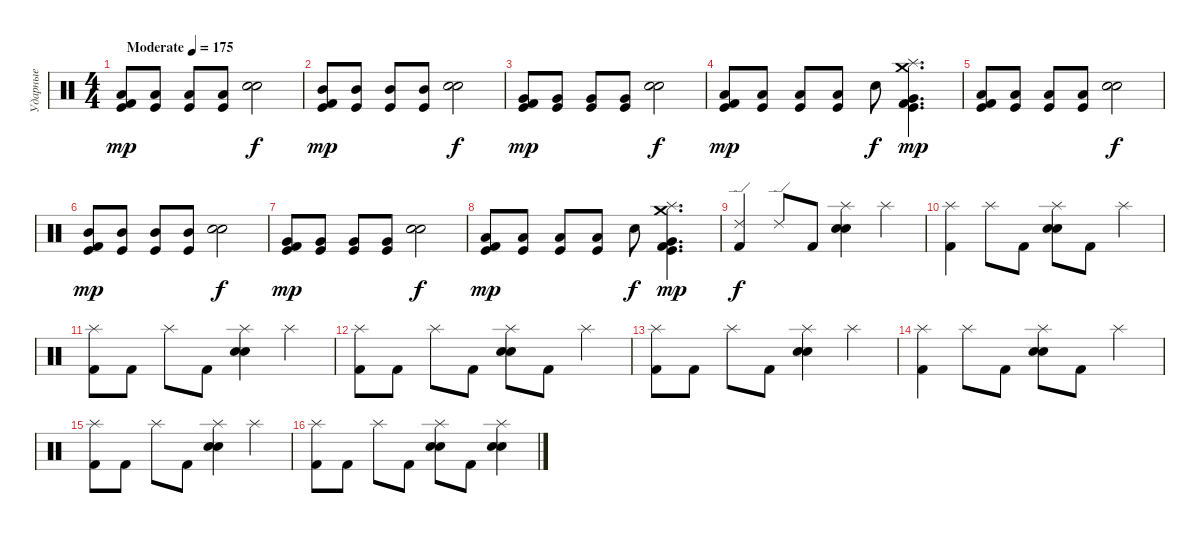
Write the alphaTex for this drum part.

\track ("Ударные" "Ударные") {instrument percussion}
\staff {score}
\articulation defaults
\ts (4 4)
\tempo (175 "Moderate")
\clef neutral
\ks c
("Kick (hit)" "Low Tom (hit)" "Kick (hit) 2").8{dy mp} ("Kick (hit)" "Low Tom (hit)").8 ("Kick (hit)" "Low Tom (hit)").8 ("Kick (hit)" "Low Tom (hit)").8 ("Electric Snare (hit)" "Snare (hit) 2").2{dy f} |
("Kick (hit)" "Mid Tom (hit)" "Kick (hit) 2").8{dy mp} ("Kick (hit)" "Mid Tom (hit)").8 ("Kick (hit)" "Mid Tom (hit)").8 ("Kick (hit)" "Mid Tom (hit)").8 ("Electric Snare (hit)" "Snare (hit) 2").2{dy f} |
("Kick (hit)" "Very Low Tom (hit)" "Kick (hit) 2").8{dy mp} ("Kick (hit)" "Very Low Tom (hit)").8 ("Kick (hit)" "Very Low Tom (hit)").8 ("Kick (hit)" "Very Low Tom (hit)").8 ("Electric Snare (hit)" "Snare (hit) 2").2{dy f} |
("Kick (hit)" "Low Floor Tom (hit)" "Kick (hit) 2").8{dy mp} ("Kick (hit)" "Low Floor Tom (hit)").8 ("Kick (hit)" "Low Floor Tom (hit)").8 ("Kick (hit)" "Low Floor Tom (hit)").8 "Snare (hit) 2".8{dy f} ("Crash medium (hit)" "Splash (hit)" "Kick (hit)" "Very Low Tom (hit)" "Kick (hit) 2").4{d dy mp} |
("Kick (hit)" "Low Tom (hit)" "Kick (hit) 2").8 ("Kick (hit)" "Low Tom (hit)").8 ("Kick (hit)" "Low Tom (hit)").8 ("Kick (hit)" "Low Tom (hit)").8 ("Electric Snare (hit)" "Snare (hit) 2").2{dy f} |
("Kick (hit)" "Mid Tom (hit)" "Kick (hit) 2").8{dy mp} ("Kick (hit)" "Mid Tom (hit)").8 ("Kick (hit)" "Mid Tom (hit)").8 ("Kick (hit)" "Mid Tom (hit)").8 ("Electric Snare (hit)" "Snare (hit) 2").2{dy f} |
("Kick (hit)" "Very Low Tom (hit)" "Kick (hit) 2").8{dy mp} ("Kick (hit)" "Very Low Tom (hit)").8 ("Kick (hit)" "Very Low Tom (hit)").8 ("Kick (hit)" "Very Low Tom (hit)").8 ("Electric Snare (hit)" "Snare (hit) 2").2{dy f} |
("Kick (hit)" "Low Floor Tom (hit)" "Kick (hit) 2").8{dy mp} ("Kick (hit)" "Low Floor Tom (hit)").8 ("Kick (hit)" "Low Floor Tom (hit)").8 ("Kick (hit)" "Low Floor Tom (hit)").8 "Snare (hit) 2".8{dy f} ("Crash medium (hit)" "Splash (hit)" "Kick (hit)" "Very Low Tom (hit)" "Kick (hit) 2").4{d dy mp} |
("Ride (edge) 2" "Kick (hit) 2").4{dy f} "Ride (edge) 2".8 "Kick (hit) 2".8 ("Splash (hit)" "Electric Snare (hit)" "Snare (hit) 2").4 "Splash (hit)".4 |
("Splash (hit)" "Kick (hit) 2").4 "Splash (hit)".8 "Kick (hit) 2".8 ("Splash (hit)" "Electric Snare (hit)" "Snare (hit) 2").8 "Kick (hit) 2".8 "Splash (hit)".4 |
("Splash (hit)" "Kick (hit) 2").8 "Kick (hit) 2".8 "Splash (hit)".8 "Kick (hit) 2".8 ("Splash (hit)" "Electric Snare (hit)" "Snare (hit) 2").4 "Splash (hit)".4 |
("Splash (hit)" "Kick (hit) 2").8 "Kick (hit) 2".8 "Splash (hit)".8 "Kick (hit) 2".8 ("Splash (hit)" "Electric Snare (hit)" "Snare (hit) 2").8 "Kick (hit) 2".8 "Splash (hit)".4 |
("Splash (hit)" "Kick (hit) 2").8 "Kick (hit) 2".8 "Splash (hit)".8 "Kick (hit) 2".8 ("Splash (hit)" "Electric Snare (hit)" "Snare (hit) 2").4 "Splash (hit)".4 |
("Splash (hit)" "Kick (hit) 2").4 "Splash (hit)".8 "Kick (hit) 2".8 ("Splash (hit)" "Electric Snare (hit)" "Snare (hit) 2").8 "Kick (hit) 2".8 "Splash (hit)".4 |
("Splash (hit)" "Kick (hit) 2").8 "Kick (hit) 2".8 "Splash (hit)".8 "Kick (hit) 2".8 ("Splash (hit)" "Electric Snare (hit)" "Snare (hit) 2").4 "Splash (hit)".4 |
("Splash (hit)" "Kick (hit) 2").8 "Kick (hit) 2".8 "Splash (hit)".8 "Kick (hit) 2".8 ("Splash (hit)" "Electric Snare (hit)" "Snare (hit) 2").8 "Kick (hit) 2".8 ("Splash (hit)" "Electric Snare (hit)" "Snare (hit) 2").4
